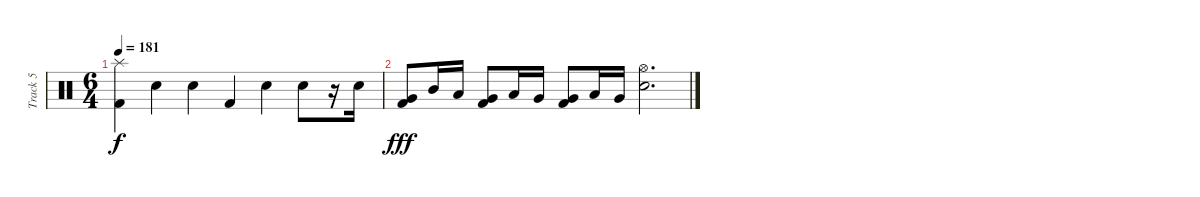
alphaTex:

\track ("Track 5" "Track 5") {instrument percussion}
\staff {score}
\articulation defaults
\ts (6 4)
\tempo 181
\clef neutral
\ks c
("Splash (hit)" "Kick (hit) 2").4{dy f} "Electric Snare (hit)".4 "Electric Snare (hit)".4 "Kick (hit) 2".4 "Electric Snare (hit)".4 "Electric Snare (hit)".8 r.16 "Electric Snare (hit)".16 |
("Kick (hit) 2" "Very Low Tom (hit)").8{dy fff} "Mid Tom (hit)".16 "Low Tom (hit)".16 ("Kick (hit) 2" "Very Low Tom (hit)").8 "Low Tom (hit)".16 "Very Low Tom (hit)".16 ("Kick (hit) 2" "Very Low Tom (hit)").8 "Low Tom (hit)".16 "Very Low Tom (hit)".16 ("Electric Snare (hit)" "Hi-Hat (open)").2{d}
